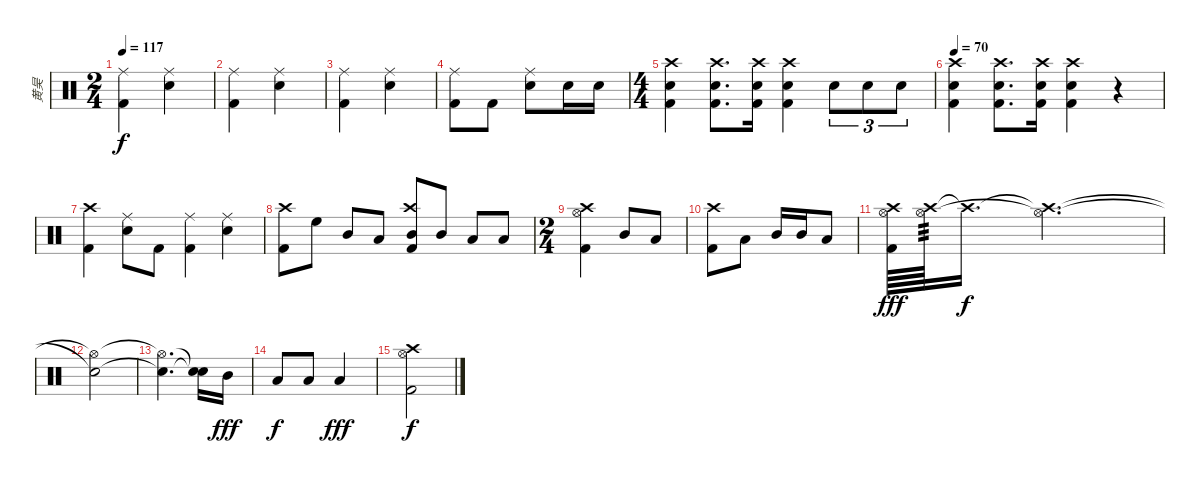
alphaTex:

\track ("黄昊" "黄昊") {instrument percussion}
\staff {score}
\articulation defaults
\ts (2 4)
\tempo 117
\clef neutral
\ks c
("Ride (middle)" "Kick (hit) 2").4{dy f} ("Ride (middle)" "Snare (hit) 2").4 |
("Ride (middle)" "Kick (hit) 2").4 ("Ride (middle)" "Snare (hit) 2").4 |
("Ride (middle)" "Kick (hit) 2").4 ("Ride (middle)" "Snare (hit) 2").4 |
("Ride (middle)" "Kick (hit) 2").8 "Kick (hit) 2".8 ("Ride (middle)" "Snare (hit) 2").8 "Snare (hit) 2".16 "Snare (hit) 2".16 |
\ts (4 4)
("Crash high (hit)" "Snare (hit) 2" "Kick (hit) 2").4 ("Crash high (hit)" "Snare (hit) 2" "Kick (hit) 2").8{d} ("Crash high (hit)" "Snare (hit) 2" "Kick (hit) 2").16 ("Crash high (hit)" "Snare (hit) 2" "Kick (hit) 2").4 "Snare (hit) 2".8{tu (3 2)} "Snare (hit) 2".8{tu (3 2)} "Snare (hit) 2".8{tu (3 2)} |
\tempo 70
("Crash high (hit)" "Snare (hit) 2" "Kick (hit) 2").4 ("Crash high (hit)" "Snare (hit) 2" "Kick (hit) 2").8{d} ("Crash high (hit)" "Snare (hit) 2" "Kick (hit) 2").16 ("Crash high (hit)" "Snare (hit) 2" "Kick (hit) 2").4 r.4 |
("Crash high (hit)" "Kick (hit) 2").4 ("Ride (middle)" "Snare (hit) 2").8 "Kick (hit) 2".8 ("Ride (middle)" "Kick (hit) 2").4 ("Ride (middle)" "Snare (hit) 2").4 |
("Crash high (hit)" "Kick (hit) 2").8 "High Floor Tom (hit)".8 "Mid Tom (hit)".8 "Low Tom (hit)".8 ("Crash high (hit)" "Mid Tom (hit)" "Kick (hit) 2").8 "Mid Tom (hit)".8 "Low Tom (hit)".8 "Low Floor Tom (hit)".8 |
\ts (2 4)
("Hi-Hat (open)" "Crash high (hit)" "Kick (hit) 2").4 "Mid Tom (hit)".8 "Low Tom (hit)".8 |
("Crash high (hit)" "Kick (hit) 2").8 "Low Tom (hit)".8 "Mid Tom (hit)".16 "Mid Tom (hit)".16 "Low Tom (hit)".8 |
("Crash high (hit)" "Hi-Hat (open)" "Kick (hit) 2").64{dy fff} ("Crash high (hit)" "Hi-Hat (open)").64{tp 3} "Crash high (hit)"{t}.16{d dy f} ("Crash high (hit)"{t} "Hi-Hat (open)"{t}).4{d} |
("Snare (hit)"{t} "Hi-Hat (open)"{t}).2 |
("Snare (hit)"{t} "Hi-Hat (open)"{t}).4{d} ("Snare (hit)"{t} "Snare (hit)"{t}).16 "Mid Tom (hit)".16{dy fff} |
"Low Tom (hit)".8{dy f} "Low Tom (hit)".8 "Low Floor Tom (hit)".4{dy fff} |
("Crash high (hit)" "Hi-Hat (open)" "Kick (hit) 2").2{dy f}
